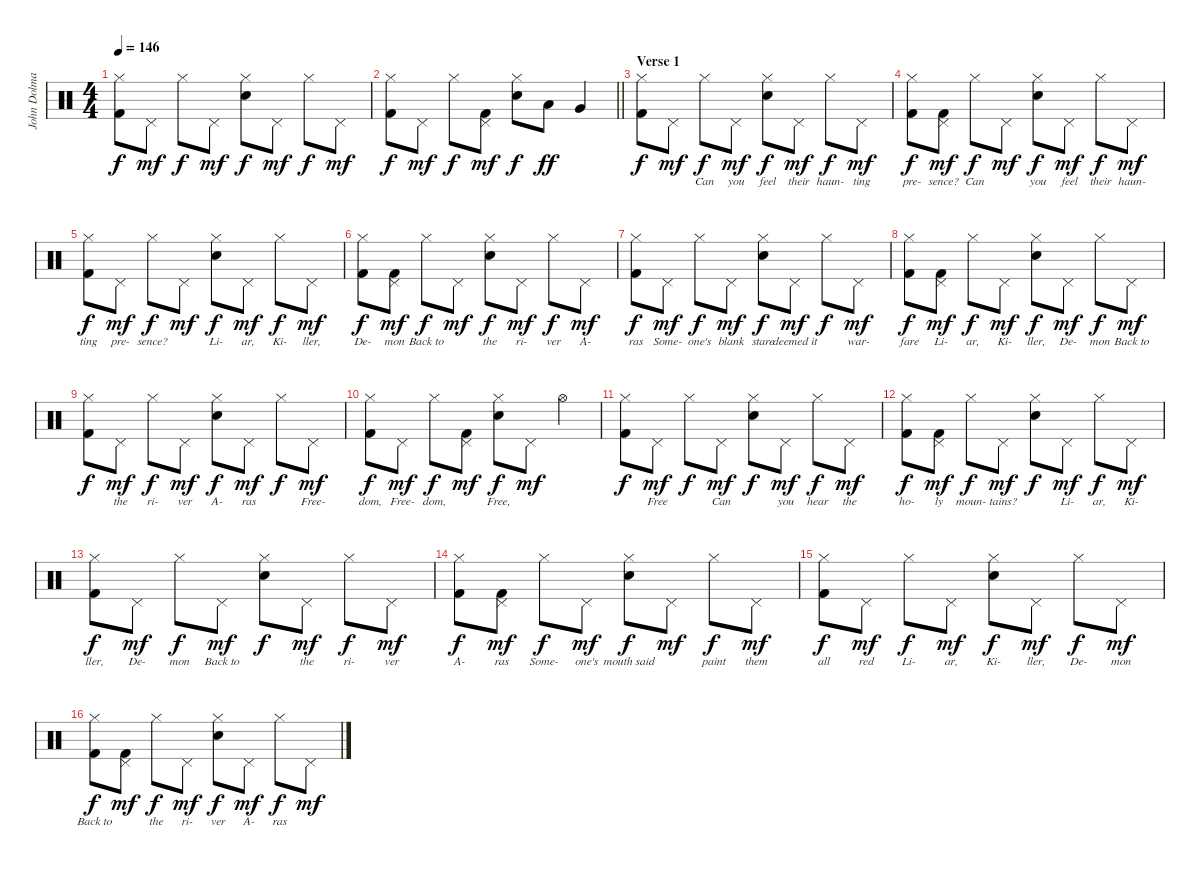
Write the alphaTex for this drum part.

\track ("John Dolmayan" "John Dolma") {instrument percussion}
\staff {score}
\articulation defaults
\ts (4 4)
\tempo 146
\clef neutral
\ks c
("Hi-Hat (closed)" "Kick (hit) 2").8{dy f} "Pedal Hi-Hat (hit)".8{dy mf} "Hi-Hat (closed)".8{dy f} "Pedal Hi-Hat (hit)".8{dy mf} ("Hi-Hat (closed)" "Electric Snare (hit)").8{dy f} "Pedal Hi-Hat (hit)".8{dy mf} "Hi-Hat (closed)".8{dy f} "Pedal Hi-Hat (hit)".8{dy mf} |
\barLineRight lightlight
("Hi-Hat (closed)" "Kick (hit) 2").8{dy f} "Pedal Hi-Hat (hit)".8{dy mf} "Hi-Hat (closed)".8{dy f} ("Pedal Hi-Hat (hit)" "Kick (hit) 2").8{dy mf} ("Hi-Hat (closed)" "Electric Snare (hit)").8{dy f} "Low Tom (hit)".8{dy ff} "Very Low Tom (hit)".4 |
\section ("" "Verse 1")
("Hi-Hat (closed)" "Kick (hit) 2").8{lyrics (0 "") lyrics (1 "") lyrics (2 "") lyrics (3 "") lyrics (4 "") dy f} "Pedal Hi-Hat (hit)".8{lyrics (0 "") lyrics (1 "") lyrics (2 "") lyrics (3 "") lyrics (4 "") dy mf} "Hi-Hat (closed)".8{lyrics (0 "Can") lyrics (1 "") lyrics (2 "") lyrics (3 "") lyrics (4 "") dy f} "Pedal Hi-Hat (hit)".8{lyrics (0 "you") lyrics (1 "") lyrics (2 "") lyrics (3 "") lyrics (4 "") dy mf} ("Hi-Hat (closed)" "Electric Snare (hit)").8{lyrics (0 "feel") lyrics (1 "") lyrics (2 "") lyrics (3 "") lyrics (4 "") dy f} "Pedal Hi-Hat (hit)".8{lyrics (0 "their") lyrics (1 "") lyrics (2 "") lyrics (3 "") lyrics (4 "") dy mf} "Hi-Hat (closed)".8{lyrics (0 "haun-") lyrics (1 "") lyrics (2 "") lyrics (3 "") lyrics (4 "") dy f} "Pedal Hi-Hat (hit)".8{lyrics (0 "ting") lyrics (1 "") lyrics (2 "") lyrics (3 "") lyrics (4 "") dy mf} |
("Hi-Hat (closed)" "Kick (hit) 2").8{lyrics (0 "pre-") lyrics (1 "") lyrics (2 "") lyrics (3 "") lyrics (4 "") dy f} ("Pedal Hi-Hat (hit)" "Kick (hit) 2").8{lyrics (0 "sence?") lyrics (1 "") lyrics (2 "") lyrics (3 "") lyrics (4 "") dy mf} "Hi-Hat (closed)".8{lyrics (0 "Can") lyrics (1 "") lyrics (2 "") lyrics (3 "") lyrics (4 "") dy f} "Pedal Hi-Hat (hit)".8{lyrics (0 "") lyrics (1 "") lyrics (2 "") lyrics (3 "") lyrics (4 "") dy mf} ("Hi-Hat (closed)" "Electric Snare (hit)").8{lyrics (0 "you") lyrics (1 "") lyrics (2 "") lyrics (3 "") lyrics (4 "") dy f} "Pedal Hi-Hat (hit)".8{lyrics (0 "feel") lyrics (1 "") lyrics (2 "") lyrics (3 "") lyrics (4 "") dy mf} "Hi-Hat (closed)".8{lyrics (0 "their") lyrics (1 "") lyrics (2 "") lyrics (3 "") lyrics (4 "") dy f} "Pedal Hi-Hat (hit)".8{lyrics (0 "haun-") lyrics (1 "") lyrics (2 "") lyrics (3 "") lyrics (4 "") dy mf} |
("Hi-Hat (closed)" "Kick (hit) 2").8{lyrics (0 "ting") lyrics (1 "") lyrics (2 "") lyrics (3 "") lyrics (4 "") dy f} "Pedal Hi-Hat (hit)".8{lyrics (0 "pre-") lyrics (1 "") lyrics (2 "") lyrics (3 "") lyrics (4 "") dy mf} "Hi-Hat (closed)".8{lyrics (0 "sence?") lyrics (1 "") lyrics (2 "") lyrics (3 "") lyrics (4 "") dy f} "Pedal Hi-Hat (hit)".8{lyrics (0 "") lyrics (1 "") lyrics (2 "") lyrics (3 "") lyrics (4 "") dy mf} ("Hi-Hat (closed)" "Electric Snare (hit)").8{lyrics (0 "Li-") lyrics (1 "") lyrics (2 "") lyrics (3 "") lyrics (4 "") dy f} "Pedal Hi-Hat (hit)".8{lyrics (0 "ar,") lyrics (1 "") lyrics (2 "") lyrics (3 "") lyrics (4 "") dy mf} "Hi-Hat (closed)".8{lyrics (0 "Ki-") lyrics (1 "") lyrics (2 "") lyrics (3 "") lyrics (4 "") dy f} "Pedal Hi-Hat (hit)".8{lyrics (0 "ller,") lyrics (1 "") lyrics (2 "") lyrics (3 "") lyrics (4 "") dy mf} |
("Hi-Hat (closed)" "Kick (hit) 2").8{lyrics (0 "De-") lyrics (1 "") lyrics (2 "") lyrics (3 "") lyrics (4 "") dy f} ("Pedal Hi-Hat (hit)" "Kick (hit) 2").8{lyrics (0 "mon") lyrics (1 "") lyrics (2 "") lyrics (3 "") lyrics (4 "") dy mf} "Hi-Hat (closed)".8{lyrics (0 "Back to") lyrics (1 "") lyrics (2 "") lyrics (3 "") lyrics (4 "") dy f} "Pedal Hi-Hat (hit)".8{lyrics (0 "") lyrics (1 "") lyrics (2 "") lyrics (3 "") lyrics (4 "") dy mf} ("Hi-Hat (closed)" "Electric Snare (hit)").8{lyrics (0 "the") lyrics (1 "") lyrics (2 "") lyrics (3 "") lyrics (4 "") dy f} "Pedal Hi-Hat (hit)".8{lyrics (0 "ri-") lyrics (1 "") lyrics (2 "") lyrics (3 "") lyrics (4 "") dy mf} "Hi-Hat (closed)".8{lyrics (0 "ver") lyrics (1 "") lyrics (2 "") lyrics (3 "") lyrics (4 "") dy f} "Pedal Hi-Hat (hit)".8{lyrics (0 "A-") lyrics (1 "") lyrics (2 "") lyrics (3 "") lyrics (4 "") dy mf} |
("Hi-Hat (closed)" "Kick (hit) 2").8{lyrics (0 "ras") lyrics (1 "") lyrics (2 "") lyrics (3 "") lyrics (4 "") dy f} "Pedal Hi-Hat (hit)".8{lyrics (0 "Some-") lyrics (1 "") lyrics (2 "") lyrics (3 "") lyrics (4 "") dy mf} "Hi-Hat (closed)".8{lyrics (0 "one's") lyrics (1 "") lyrics (2 "") lyrics (3 "") lyrics (4 "") dy f} "Pedal Hi-Hat (hit)".8{lyrics (0 "blank") lyrics (1 "") lyrics (2 "") lyrics (3 "") lyrics (4 "") dy mf} ("Hi-Hat (closed)" "Electric Snare (hit)").8{lyrics (0 "stare") lyrics (1 "") lyrics (2 "") lyrics (3 "") lyrics (4 "") dy f} "Pedal Hi-Hat (hit)".8{lyrics (0 "deemed it") lyrics (1 "") lyrics (2 "") lyrics (3 "") lyrics (4 "") dy mf} "Hi-Hat (closed)".8{lyrics (0 "") lyrics (1 "") lyrics (2 "") lyrics (3 "") lyrics (4 "") dy f} "Pedal Hi-Hat (hit)".8{lyrics (0 "war-") lyrics (1 "") lyrics (2 "") lyrics (3 "") lyrics (4 "") dy mf} |
("Hi-Hat (closed)" "Kick (hit) 2").8{lyrics (0 "fare") lyrics (1 "") lyrics (2 "") lyrics (3 "") lyrics (4 "") dy f} ("Pedal Hi-Hat (hit)" "Kick (hit) 2").8{lyrics (0 "Li-") lyrics (1 "") lyrics (2 "") lyrics (3 "") lyrics (4 "") dy mf} "Hi-Hat (closed)".8{lyrics (0 "ar,") lyrics (1 "") lyrics (2 "") lyrics (3 "") lyrics (4 "") dy f} "Pedal Hi-Hat (hit)".8{lyrics (0 "Ki-") lyrics (1 "") lyrics (2 "") lyrics (3 "") lyrics (4 "") dy mf} ("Hi-Hat (closed)" "Electric Snare (hit)").8{lyrics (0 "ller,") lyrics (1 "") lyrics (2 "") lyrics (3 "") lyrics (4 "") dy f} "Pedal Hi-Hat (hit)".8{lyrics (0 "De-") lyrics (1 "") lyrics (2 "") lyrics (3 "") lyrics (4 "") dy mf} "Hi-Hat (closed)".8{lyrics (0 "mon") lyrics (1 "") lyrics (2 "") lyrics (3 "") lyrics (4 "") dy f} "Pedal Hi-Hat (hit)".8{lyrics (0 "Back to") lyrics (1 "") lyrics (2 "") lyrics (3 "") lyrics (4 "") dy mf} |
("Hi-Hat (closed)" "Kick (hit) 2").8{lyrics (0 "") lyrics (1 "") lyrics (2 "") lyrics (3 "") lyrics (4 "") dy f} "Pedal Hi-Hat (hit)".8{lyrics (0 "the") lyrics (1 "") lyrics (2 "") lyrics (3 "") lyrics (4 "") dy mf} "Hi-Hat (closed)".8{lyrics (0 "ri-") lyrics (1 "") lyrics (2 "") lyrics (3 "") lyrics (4 "") dy f} "Pedal Hi-Hat (hit)".8{lyrics (0 "ver") lyrics (1 "") lyrics (2 "") lyrics (3 "") lyrics (4 "") dy mf} ("Hi-Hat (closed)" "Electric Snare (hit)").8{lyrics (0 "A-") lyrics (1 "") lyrics (2 "") lyrics (3 "") lyrics (4 "") dy f} "Pedal Hi-Hat (hit)".8{lyrics (0 "ras") lyrics (1 "") lyrics (2 "") lyrics (3 "") lyrics (4 "") dy mf} "Hi-Hat (closed)".8{lyrics (0 "") lyrics (1 "") lyrics (2 "") lyrics (3 "") lyrics (4 "") dy f} "Pedal Hi-Hat (hit)".8{lyrics (0 "Free-") lyrics (1 "") lyrics (2 "") lyrics (3 "") lyrics (4 "") dy mf} |
("Hi-Hat (closed)" "Kick (hit) 2").8{lyrics (0 "dom,") lyrics (1 "") lyrics (2 "") lyrics (3 "") lyrics (4 "") dy f} "Pedal Hi-Hat (hit)".8{lyrics (0 "Free-") lyrics (1 "") lyrics (2 "") lyrics (3 "") lyrics (4 "") dy mf} "Hi-Hat (closed)".8{lyrics (0 "dom,") lyrics (1 "") lyrics (2 "") lyrics (3 "") lyrics (4 "") dy f} ("Pedal Hi-Hat (hit)" "Kick (hit) 2").8{lyrics (0 "") lyrics (1 "") lyrics (2 "") lyrics (3 "") lyrics (4 "") dy mf} ("Hi-Hat (closed)" "Electric Snare (hit)").8{lyrics (0 "Free,") lyrics (1 "") lyrics (2 "") lyrics (3 "") lyrics (4 "") dy f} "Pedal Hi-Hat (hit)".8{lyrics (0 "") lyrics (1 "") lyrics (2 "") lyrics (3 "") lyrics (4 "") dy mf} "Hi-Hat (open)".4{lyrics (0 "") lyrics (1 "") lyrics (2 "") lyrics (3 "") lyrics (4 "")} |
("Hi-Hat (closed)" "Kick (hit) 2").8{lyrics (0 "") lyrics (1 "") lyrics (2 "") lyrics (3 "") lyrics (4 "") dy f} "Pedal Hi-Hat (hit)".8{lyrics (0 "Free") lyrics (1 "") lyrics (2 "") lyrics (3 "") lyrics (4 "") dy mf} "Hi-Hat (closed)".8{lyrics (0 "") lyrics (1 "") lyrics (2 "") lyrics (3 "") lyrics (4 "") dy f} "Pedal Hi-Hat (hit)".8{lyrics (0 "Can") lyrics (1 "") lyrics (2 "") lyrics (3 "") lyrics (4 "") dy mf} ("Hi-Hat (closed)" "Electric Snare (hit)").8{lyrics (0 "") lyrics (1 "") lyrics (2 "") lyrics (3 "") lyrics (4 "") dy f} "Pedal Hi-Hat (hit)".8{lyrics (0 "you") lyrics (1 "") lyrics (2 "") lyrics (3 "") lyrics (4 "") dy mf} "Hi-Hat (closed)".8{lyrics (0 "hear") lyrics (1 "") lyrics (2 "") lyrics (3 "") lyrics (4 "") dy f} "Pedal Hi-Hat (hit)".8{lyrics (0 "the") lyrics (1 "") lyrics (2 "") lyrics (3 "") lyrics (4 "") dy mf} |
("Hi-Hat (closed)" "Kick (hit) 2").8{lyrics (0 "ho-") lyrics (1 "") lyrics (2 "") lyrics (3 "") lyrics (4 "") dy f} ("Pedal Hi-Hat (hit)" "Kick (hit) 2").8{lyrics (0 "ly") lyrics (1 "") lyrics (2 "") lyrics (3 "") lyrics (4 "") dy mf} "Hi-Hat (closed)".8{lyrics (0 "moun-") lyrics (1 "") lyrics (2 "") lyrics (3 "") lyrics (4 "") dy f} "Pedal Hi-Hat (hit)".8{lyrics (0 "tains?") lyrics (1 "") lyrics (2 "") lyrics (3 "") lyrics (4 "") dy mf} ("Hi-Hat (closed)" "Electric Snare (hit)").8{lyrics (0 "") lyrics (1 "") lyrics (2 "") lyrics (3 "") lyrics (4 "") dy f} "Pedal Hi-Hat (hit)".8{lyrics (0 "Li-") lyrics (1 "") lyrics (2 "") lyrics (3 "") lyrics (4 "") dy mf} "Hi-Hat (closed)".8{lyrics (0 "ar,") lyrics (1 "") lyrics (2 "") lyrics (3 "") lyrics (4 "") dy f} "Pedal Hi-Hat (hit)".8{lyrics (0 "Ki-") lyrics (1 "") lyrics (2 "") lyrics (3 "") lyrics (4 "") dy mf} |
("Hi-Hat (closed)" "Kick (hit) 2").8{lyrics (0 "ller,") lyrics (1 "") lyrics (2 "") lyrics (3 "") lyrics (4 "") dy f} "Pedal Hi-Hat (hit)".8{lyrics (0 "De-") lyrics (1 "") lyrics (2 "") lyrics (3 "") lyrics (4 "") dy mf} "Hi-Hat (closed)".8{lyrics (0 "mon") lyrics (1 "") lyrics (2 "") lyrics (3 "") lyrics (4 "") dy f} "Pedal Hi-Hat (hit)".8{lyrics (0 "Back to") lyrics (1 "") lyrics (2 "") lyrics (3 "") lyrics (4 "") dy mf} ("Hi-Hat (closed)" "Electric Snare (hit)").8{lyrics (0 "") lyrics (1 "") lyrics (2 "") lyrics (3 "") lyrics (4 "") dy f} "Pedal Hi-Hat (hit)".8{lyrics (0 "the") lyrics (1 "") lyrics (2 "") lyrics (3 "") lyrics (4 "") dy mf} "Hi-Hat (closed)".8{lyrics (0 "ri-") lyrics (1 "") lyrics (2 "") lyrics (3 "") lyrics (4 "") dy f} "Pedal Hi-Hat (hit)".8{lyrics (0 "ver") lyrics (1 "") lyrics (2 "") lyrics (3 "") lyrics (4 "") dy mf} |
("Hi-Hat (closed)" "Kick (hit) 2").8{lyrics (0 "A-") lyrics (1 "") lyrics (2 "") lyrics (3 "") lyrics (4 "") dy f} ("Pedal Hi-Hat (hit)" "Kick (hit) 2").8{lyrics (0 "ras") lyrics (1 "") lyrics (2 "") lyrics (3 "") lyrics (4 "") dy mf} "Hi-Hat (closed)".8{lyrics (0 "Some-") lyrics (1 "") lyrics (2 "") lyrics (3 "") lyrics (4 "") dy f} "Pedal Hi-Hat (hit)".8{lyrics (0 "one's") lyrics (1 "") lyrics (2 "") lyrics (3 "") lyrics (4 "") dy mf} ("Hi-Hat (closed)" "Electric Snare (hit)").8{lyrics (0 "mouth said") lyrics (1 "") lyrics (2 "") lyrics (3 "") lyrics (4 "") dy f} "Pedal Hi-Hat (hit)".8{lyrics (0 "") lyrics (1 "") lyrics (2 "") lyrics (3 "") lyrics (4 "") dy mf} "Hi-Hat (closed)".8{lyrics (0 "paint") lyrics (1 "") lyrics (2 "") lyrics (3 "") lyrics (4 "") dy f} "Pedal Hi-Hat (hit)".8{lyrics (0 "them") lyrics (1 "") lyrics (2 "") lyrics (3 "") lyrics (4 "") dy mf} |
("Hi-Hat (closed)" "Kick (hit) 2").8{lyrics (0 "all") lyrics (1 "") lyrics (2 "") lyrics (3 "") lyrics (4 "") dy f} "Pedal Hi-Hat (hit)".8{lyrics (0 "red") lyrics (1 "") lyrics (2 "") lyrics (3 "") lyrics (4 "") dy mf} "Hi-Hat (closed)".8{lyrics (0 "Li-") lyrics (1 "") lyrics (2 "") lyrics (3 "") lyrics (4 "") dy f} "Pedal Hi-Hat (hit)".8{lyrics (0 "ar,") lyrics (1 "") lyrics (2 "") lyrics (3 "") lyrics (4 "") dy mf} ("Hi-Hat (closed)" "Electric Snare (hit)").8{lyrics (0 "Ki-") lyrics (1 "") lyrics (2 "") lyrics (3 "") lyrics (4 "") dy f} "Pedal Hi-Hat (hit)".8{lyrics (0 "ller,") lyrics (1 "") lyrics (2 "") lyrics (3 "") lyrics (4 "") dy mf} "Hi-Hat (closed)".8{lyrics (0 "De-") lyrics (1 "") lyrics (2 "") lyrics (3 "") lyrics (4 "") dy f} "Pedal Hi-Hat (hit)".8{lyrics (0 "mon") lyrics (1 "") lyrics (2 "") lyrics (3 "") lyrics (4 "") dy mf} |
("Hi-Hat (closed)" "Kick (hit) 2").8{lyrics (0 "Back to") lyrics (1 "") lyrics (2 "") lyrics (3 "") lyrics (4 "") dy f} ("Pedal Hi-Hat (hit)" "Kick (hit) 2").8{lyrics (0 "") lyrics (1 "") lyrics (2 "") lyrics (3 "") lyrics (4 "") dy mf} "Hi-Hat (closed)".8{lyrics (0 "the") lyrics (1 "") lyrics (2 "") lyrics (3 "") lyrics (4 "") dy f} "Pedal Hi-Hat (hit)".8{lyrics (0 "ri-") lyrics (1 "") lyrics (2 "") lyrics (3 "") lyrics (4 "") dy mf} ("Hi-Hat (closed)" "Electric Snare (hit)").8{lyrics (0 "ver") lyrics (1 "") lyrics (2 "") lyrics (3 "") lyrics (4 "") dy f} "Pedal Hi-Hat (hit)".8{lyrics (0 "A-") lyrics (1 "") lyrics (2 "") lyrics (3 "") lyrics (4 "") dy mf} "Hi-Hat (closed)".8{lyrics (0 "ras") lyrics (1 "") lyrics (2 "") lyrics (3 "") lyrics (4 "") dy f} "Pedal Hi-Hat (hit)".8{lyrics (0 "") lyrics (1 "") lyrics (2 "") lyrics (3 "") lyrics (4 "") dy mf}
